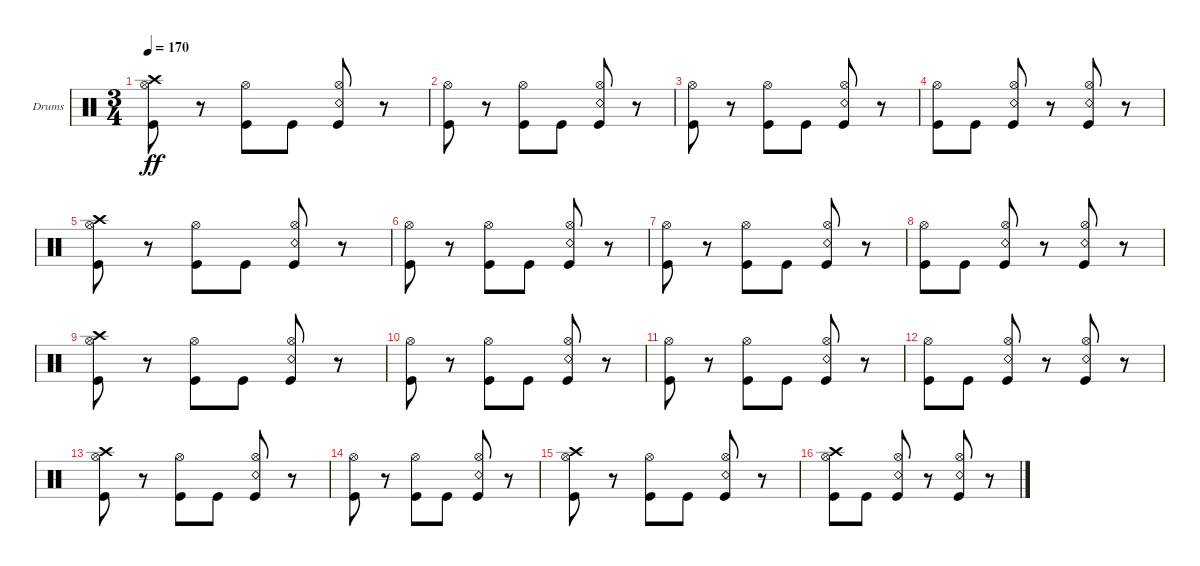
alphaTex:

\bracketExtendMode groupsimilarinstruments
\firstSystemTrackNameOrientation horizontal
\otherSystemsTrackNameOrientation horizontal
\track ("Kaleb - Drums" "Drums") {instrument percussion}
\staff {score}
\articulation defaults
\ts (3 4)
\tempo 170
\clef neutral
\ks c
("Kick (hit)" "Hi-Hat (open)" "Crash high (hit)").8{dy ff} r.8 ("Kick (hit)" "Hi-Hat (open)").8 "Kick (hit)".8 ("Kick (hit)" "Snare (rim shot)" "Hi-Hat (open)").8 r.8 |
("Kick (hit)" "Hi-Hat (open)").8 r.8 ("Kick (hit)" "Hi-Hat (open)").8 "Kick (hit)".8 ("Kick (hit)" "Hi-Hat (open)" "Snare (rim shot)").8 r.8 |
("Kick (hit)" "Hi-Hat (open)").8 r.8 ("Kick (hit)" "Hi-Hat (open)").8 "Kick (hit)".8 ("Kick (hit)" "Hi-Hat (open)" "Snare (rim shot)").8 r.8 |
("Kick (hit)" "Hi-Hat (open)").8 "Kick (hit)".8 ("Kick (hit)" "Hi-Hat (open)" "Snare (rim shot)").8 r.8 ("Kick (hit)" "Hi-Hat (open)" "Snare (rim shot)").8 r.8 |
("Kick (hit)" "Hi-Hat (open)" "Crash high (hit)").8 r.8 ("Kick (hit)" "Hi-Hat (open)").8 "Kick (hit)".8 ("Kick (hit)" "Snare (rim shot)" "Hi-Hat (open)").8 r.8 |
("Kick (hit)" "Hi-Hat (open)").8 r.8 ("Kick (hit)" "Hi-Hat (open)").8 "Kick (hit)".8 ("Kick (hit)" "Hi-Hat (open)" "Snare (rim shot)").8 r.8 |
("Kick (hit)" "Hi-Hat (open)").8 r.8 ("Kick (hit)" "Hi-Hat (open)").8 "Kick (hit)".8 ("Kick (hit)" "Hi-Hat (open)" "Snare (rim shot)").8 r.8 |
("Kick (hit)" "Hi-Hat (open)").8 "Kick (hit)".8 ("Kick (hit)" "Hi-Hat (open)" "Snare (rim shot)").8 r.8 ("Kick (hit)" "Hi-Hat (open)" "Snare (rim shot)").8 r.8 |
("Kick (hit)" "Hi-Hat (open)" "Crash high (hit)").8 r.8 ("Kick (hit)" "Hi-Hat (open)").8 "Kick (hit)".8 ("Kick (hit)" "Snare (rim shot)" "Hi-Hat (open)").8 r.8 |
("Kick (hit)" "Hi-Hat (open)").8 r.8 ("Kick (hit)" "Hi-Hat (open)").8 "Kick (hit)".8 ("Kick (hit)" "Hi-Hat (open)" "Snare (rim shot)").8 r.8 |
("Kick (hit)" "Hi-Hat (open)").8 r.8 ("Kick (hit)" "Hi-Hat (open)").8 "Kick (hit)".8 ("Kick (hit)" "Hi-Hat (open)" "Snare (rim shot)").8 r.8 |
("Kick (hit)" "Hi-Hat (open)").8 "Kick (hit)".8 ("Kick (hit)" "Hi-Hat (open)" "Snare (rim shot)").8 r.8 ("Kick (hit)" "Hi-Hat (open)" "Snare (rim shot)").8 r.8 |
("Kick (hit)" "Hi-Hat (open)" "Crash high (hit)").8 r.8 ("Kick (hit)" "Hi-Hat (open)").8 "Kick (hit)".8 ("Kick (hit)" "Snare (rim shot)" "Hi-Hat (open)").8 r.8 |
("Kick (hit)" "Hi-Hat (open)").8 r.8 ("Kick (hit)" "Hi-Hat (open)").8 "Kick (hit)".8 ("Kick (hit)" "Hi-Hat (open)" "Snare (rim shot)").8 r.8 |
("Kick (hit)" "Hi-Hat (open)" "Crash high (hit)").8 r.8 ("Kick (hit)" "Hi-Hat (open)").8 "Kick (hit)".8 ("Kick (hit)" "Hi-Hat (open)" "Snare (rim shot)").8 r.8 |
("Kick (hit)" "Hi-Hat (open)" "Crash high (hit)").8 "Kick (hit)".8 ("Kick (hit)" "Hi-Hat (open)" "Snare (rim shot)").8 r.8 ("Kick (hit)" "Hi-Hat (open)" "Snare (rim shot)").8 r.8
